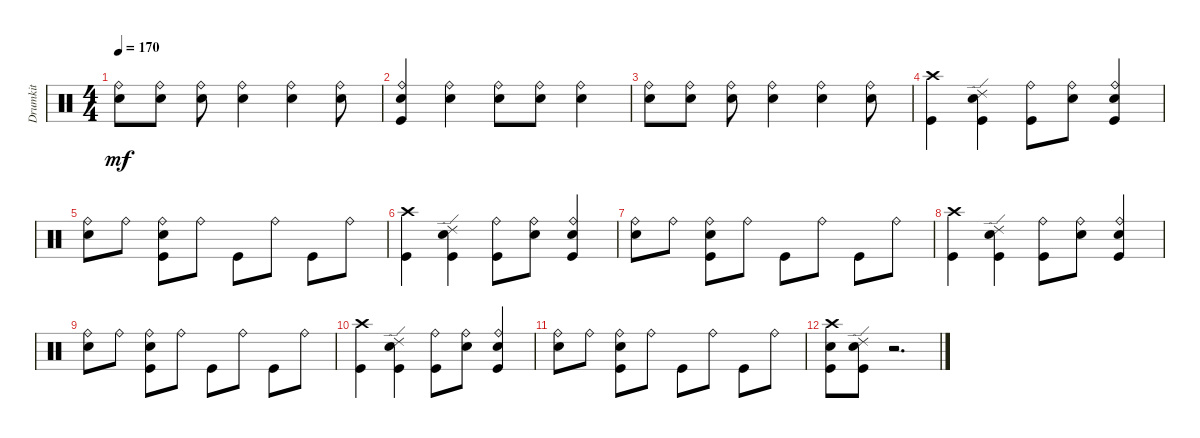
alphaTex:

\track ("Drumkit" "Drumkit") {instrument percussion}
\staff {score}
\articulation defaults
\ts (4 4)
\tempo 170
\clef neutral
\ks c
("Snare (hit) 2" "Ride (bell)").8{dy mf} ("Snare (hit) 2" "Ride (bell)").8 ("Snare (hit) 2" "Ride (bell)").8 ("Snare (hit) 2" "Ride (bell)").4 ("Snare (hit) 2" "Ride (bell)").4 ("Snare (hit) 2" "Ride (bell)").8 |
("Snare (hit) 2" "Ride (bell)" "Kick (hit)").4 ("Snare (hit) 2" "Ride (bell)").4 ("Snare (hit) 2" "Ride (bell)").8 ("Snare (hit) 2" "Ride (bell)").8 ("Snare (hit) 2" "Ride (bell)").4 |
("Snare (hit) 2" "Ride (bell)").8 ("Snare (hit) 2" "Ride (bell)").8 ("Snare (hit) 2" "Ride (bell)").8 ("Snare (hit) 2" "Ride (bell)").4 ("Snare (hit) 2" "Ride (bell)").4 ("Snare (hit) 2" "Ride (bell)").8 |
("Crash high (hit)" "Kick (hit)").4 ("Ride (edge) 2" "Kick (hit)" "Snare (hit) 2").4 ("Ride (bell)" "Kick (hit)").8 ("Ride (bell)" "Snare (hit) 2").8 ("Ride (bell)" "Kick (hit)" "Snare (hit) 2").4 |
("Ride (bell)" "Snare (hit) 2").8 "Ride (bell)".8 ("Ride (bell)" "Snare (hit) 2" "Kick (hit)").8 "Ride (bell)".8 "Kick (hit)".8 "Ride (bell)".8 "Kick (hit)".8 "Ride (bell)".8 |
("Crash high (hit)" "Kick (hit)").4 ("Ride (edge) 2" "Kick (hit)" "Snare (hit) 2").4 ("Ride (bell)" "Kick (hit)").8 ("Ride (bell)" "Snare (hit) 2").8 ("Ride (bell)" "Kick (hit)" "Snare (hit) 2").4 |
("Ride (bell)" "Snare (hit) 2").8 "Ride (bell)".8 ("Ride (bell)" "Snare (hit) 2" "Kick (hit)").8 "Ride (bell)".8 "Kick (hit)".8 "Ride (bell)".8 "Kick (hit)".8 "Ride (bell)".8 |
("Crash high (hit)" "Kick (hit)").4 ("Ride (edge) 2" "Kick (hit)" "Snare (hit) 2").4 ("Ride (bell)" "Kick (hit)").8 ("Ride (bell)" "Snare (hit) 2").8 ("Ride (bell)" "Kick (hit)" "Snare (hit) 2").4 |
("Ride (bell)" "Snare (hit) 2").8 "Ride (bell)".8 ("Ride (bell)" "Snare (hit) 2" "Kick (hit)").8 "Ride (bell)".8 "Kick (hit)".8 "Ride (bell)".8 "Kick (hit)".8 "Ride (bell)".8 |
("Crash high (hit)" "Kick (hit)").4 ("Ride (edge) 2" "Kick (hit)" "Snare (hit) 2").4 ("Ride (bell)" "Kick (hit)").8 ("Ride (bell)" "Snare (hit) 2").8 ("Ride (bell)" "Kick (hit)" "Snare (hit) 2").4 |
("Ride (bell)" "Snare (hit) 2").8 "Ride (bell)".8 ("Ride (bell)" "Snare (hit) 2" "Kick (hit)").8 "Ride (bell)".8 "Kick (hit)".8 "Ride (bell)".8 "Kick (hit)".8 "Ride (bell)".8 |
("Kick (hit)" "Snare (hit) 2" "Crash high (hit)").8 ("Kick (hit)" "Snare (hit) 2" "Ride (edge) 2").8 r.2{d}
